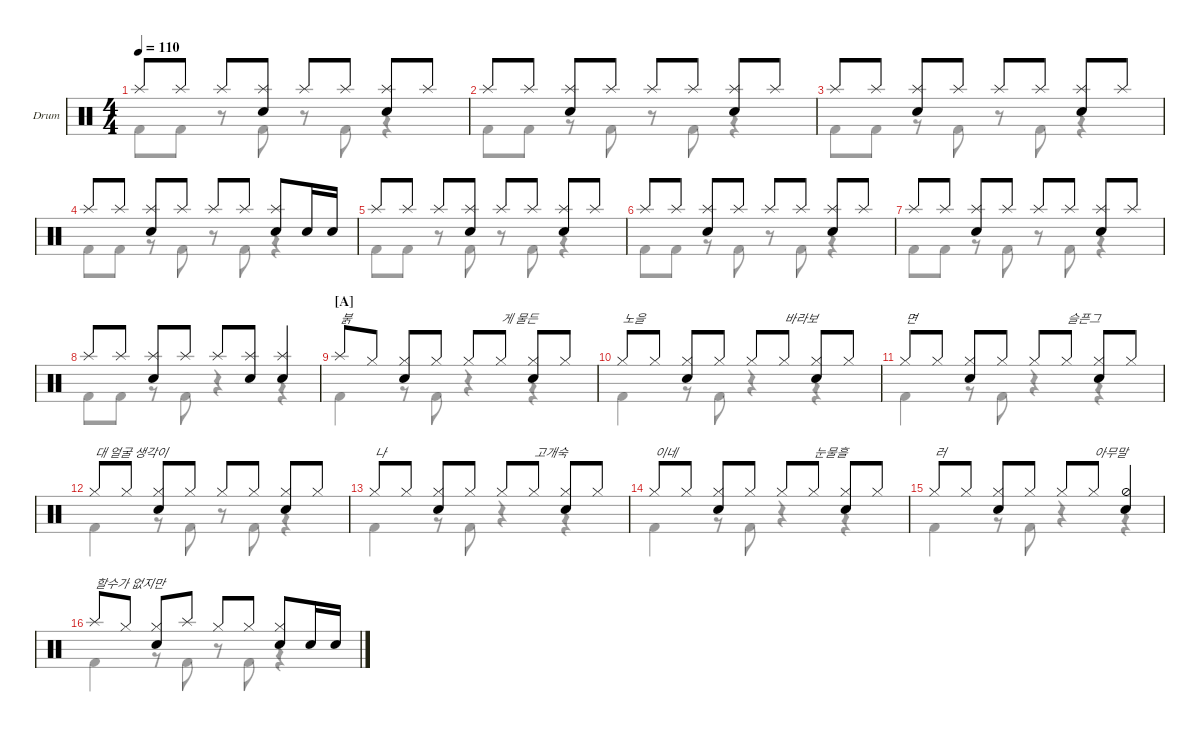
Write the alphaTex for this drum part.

\defaultSystemsLayout 4
\hideDynamics
\bracketExtendMode nobrackets
\firstSystemTrackNameOrientation horizontal
\track ("Drumkit" "Drum") {instrument percussion}
\staff {score}
\articulation defaults
\voice
\ts (4 4)
\tempo 110
\clef neutral
\ks c "Splash (hit)".8{dy mf beam Up} "Splash (hit)".8{beam Up} "Splash (hit)".8{beam Up}
("Splash (hit)" "Snare (hit) 2").8{beam Up} "Splash (hit)".8{beam Up} "Splash (hit)".8{beam Up} ("Splash (hit)" "Snare (hit) 2").8{beam Up} "Splash (hit)".8{beam Up} |
"Splash (hit)".8{beam Up} "Splash (hit)".8{beam Up} ("Splash (hit)" "Snare (hit) 2").8{beam Up} "Splash (hit)".8{beam Up} "Splash (hit)".8{beam Up} "Splash (hit)".8{beam Up} ("Splash (hit)" "Snare (hit) 2").8{beam Up} "Splash (hit)".8{beam Up} |
"Splash (hit)".8{beam Up} "Splash (hit)".8{beam Up} ("Splash (hit)" "Snare (hit) 2").8{beam Up} "Splash (hit)".8{beam Up} "Splash (hit)".8{beam Up} "Splash (hit)".8{beam Up} ("Splash (hit)" "Snare (hit) 2").8{beam Up} "Splash (hit)".8{beam Up} |
"Splash (hit)".8{beam Up} "Splash (hit)".8{beam Up} ("Splash (hit)" "Snare (hit) 2").8{beam Up} "Splash (hit)".8{beam Up} "Splash (hit)".8{beam Up} "Splash (hit)".8{beam Up} ("Splash (hit)" "Snare (hit) 2").8{beam Up} "Snare (hit) 2".16{beam Up} "Snare (hit) 2".16{beam Up} |
"Splash (hit)".8{beam Up} "Splash (hit)".8{beam Up} "Splash (hit)".8{beam Up} ("Splash (hit)" "Snare (hit) 2").8{beam Up} "Splash (hit)".8{beam Up} "Splash (hit)".8{beam Up} ("Splash (hit)" "Snare (hit) 2").8{beam Up} "Splash (hit)".8{beam Up} |
"Splash (hit)".8{beam Up} "Splash (hit)".8{beam Up} ("Splash (hit)" "Snare (hit) 2").8{beam Up} "Splash (hit)".8{beam Up} "Splash (hit)".8{beam Up} "Splash (hit)".8{beam Up} ("Splash (hit)" "Snare (hit) 2").8{beam Up} "Splash (hit)".8{beam Up} |
"Splash (hit)".8{beam Up} "Splash (hit)".8{beam Up} ("Splash (hit)" "Snare (hit) 2").8{beam Up} "Splash (hit)".8{beam Up} "Splash (hit)".8{beam Up} "Splash (hit)".8{beam Up} ("Splash (hit)" "Snare (hit) 2").8{beam Up} "Splash (hit)".8{beam Up} |
"Splash (hit)".8{beam Up} "Splash (hit)".8{beam Up} ("Splash (hit)" "Snare (hit) 2").8{beam Up} "Splash (hit)".8{beam Up} "Splash (hit)".8{beam Up} ("Splash (hit)" "Snare (hit) 2").8{beam Up} ("Splash (hit)" "Snare (hit) 2").4{beam Up} |
\section ("A" "")
"Splash (hit)".8{txt "붉" beam Up} "Hi-Hat (closed)".8{beam Up} ("Hi-Hat (closed)" "Snare (hit) 2").8{beam Up} "Hi-Hat (closed)".8{beam Up} "Hi-Hat (closed)".8{beam Up} "Hi-Hat (closed)".8{txt "게 물든" beam Up} ("Hi-Hat (closed)" "Snare (hit) 2").8{beam Up} "Hi-Hat (closed)".8{beam Up} |
"Hi-Hat (closed)".8{txt "노을" beam Up} "Hi-Hat (closed)".8{beam Up} ("Hi-Hat (closed)" "Snare (hit) 2").8{beam Up} "Hi-Hat (closed)".8{beam Up} "Hi-Hat (closed)".8{beam Up} "Hi-Hat (closed)".8{txt "바라보" beam Up} ("Hi-Hat (closed)" "Snare (hit) 2").8{beam Up} "Hi-Hat (closed)".8{beam Up} |
"Hi-Hat (closed)".8{txt "면" beam Up} "Hi-Hat (closed)".8{beam Up} ("Hi-Hat (closed)" "Snare (hit) 2").8{beam Up} "Hi-Hat (closed)".8{beam Up} "Hi-Hat (closed)".8{beam Up} "Hi-Hat (closed)".8{txt "슬픈그" beam Up} ("Hi-Hat (closed)" "Snare (hit) 2").8{beam Up} "Hi-Hat (closed)".8{beam Up} |
"Hi-Hat (closed)".8{txt "대 얼굴 생각이" beam Up} "Hi-Hat (closed)".8{beam Up} ("Hi-Hat (closed)" "Snare (hit) 2").8{beam Up} "Hi-Hat (closed)".8{beam Up} "Hi-Hat (closed)".8{beam Up} "Hi-Hat (closed)".8{beam Up} ("Hi-Hat (closed)" "Snare (hit) 2").8{beam Up} "Hi-Hat (closed)".8{beam Up} |
"Hi-Hat (closed)".8{txt "나" beam Up} "Hi-Hat (closed)".8{beam Up} ("Hi-Hat (closed)" "Snare (hit) 2").8{beam Up} "Hi-Hat (closed)".8{beam Up} "Hi-Hat (closed)".8{beam Up} "Hi-Hat (closed)".8{txt "고개숙" beam Up} ("Hi-Hat (closed)" "Snare (hit) 2").8{beam Up} "Hi-Hat (closed)".8{beam Up} |
"Hi-Hat (closed)".8{txt "이네" beam Up} "Hi-Hat (closed)".8{beam Up} ("Hi-Hat (closed)" "Snare (hit) 2").8{beam Up} "Hi-Hat (closed)".8{beam Up} "Hi-Hat (closed)".8{beam Up} "Hi-Hat (closed)".8{txt "눈물흘" beam Up} ("Hi-Hat (closed)" "Snare (hit) 2").8{beam Up} "Hi-Hat (closed)".8{beam Up} |
"Hi-Hat (closed)".8{txt "러" beam Up} "Hi-Hat (closed)".8{beam Up} ("Hi-Hat (closed)" "Snare (hit) 2").8{beam Up} "Hi-Hat (closed)".8{beam Up} "Hi-Hat (closed)".8{beam Up} "Hi-Hat (closed)".8{txt "아무말" beam Up} ("Hi-Hat (half)" "Snare (hit) 2").4{beam Up} |
"Splash (hit)".8{txt "할수가 없지만" beam Up} "Hi-Hat (closed)".8{beam Up} ("Hi-Hat (closed)" "Snare (hit) 2").8{beam Up} "Splash (hit)".8{beam Up} "Hi-Hat (closed)".8{beam Up} "Hi-Hat (closed)".8{beam Up} ("Hi-Hat (closed)" "Snare (hit) 2").8{beam Up} "Snare (hit) 2".16{beam Up} "Snare (hit) 2".16{beam Up}
\voice
\clef neutral
\ottava regular
\simile none
\ks c
|
|
|
|
|
|
|
|
|
|
|
|
|
|
|
\voice
\clef neutral
\ottava regular
\simile none
\ks c "Kick (hit) 2".8{dy mf beam Down} "Kick (hit) 2".8{beam Down}
r.8{beam Down} "Kick (hit) 2".8{beam Down} r.8{beam Down} "Kick (hit) 2".8{beam Down} r.4{beam Down} |
"Kick (hit) 2".8{beam Down} "Kick (hit) 2".8{beam Down} r.8{beam Down} "Kick (hit) 2".8{beam Down} r.8{beam Down} "Kick (hit) 2".8{beam Down} r.4{beam Down} |
"Kick (hit) 2".8{beam Down} "Kick (hit) 2".8{beam Down} r.8{beam Down} "Kick (hit) 2".8{beam Down} r.8{beam Down} "Kick (hit) 2".8{beam Down} r.4{beam Down} |
"Kick (hit) 2".8{beam Down} "Kick (hit) 2".8{beam Down} r.8{beam Down} "Kick (hit) 2".8{beam Down} r.8{beam Down} "Kick (hit) 2".8{beam Down} r.4{beam Down} |
"Kick (hit) 2".8{beam Down} "Kick (hit) 2".8{beam Down} r.8{beam Down} "Kick (hit) 2".8{beam Down} r.8{beam Down} "Kick (hit) 2".8{beam Down} r.4{beam Down} |
"Kick (hit) 2".8{beam Down} "Kick (hit) 2".8{beam Down} r.8{beam Down} "Kick (hit) 2".8{beam Down} r.8{beam Down} "Kick (hit) 2".8{beam Down} r.4{beam Down} |
"Kick (hit) 2".8{beam Down} "Kick (hit) 2".8{beam Down} r.8{beam Down} "Kick (hit) 2".8{beam Down} r.8{beam Down} "Kick (hit) 2".8{beam Down} r.4{beam Down} |
"Kick (hit) 2".8{beam Down} "Kick (hit) 2".8{beam Down} r.8{beam Down} "Kick (hit) 2".8{beam Down} r.4{beam Down} r.4{beam Down} |
"Kick (hit) 2".4{beam Down} r.8{beam Down} "Kick (hit) 2".8{beam Down} r.4{beam Down} r.4{beam Down} |
"Kick (hit) 2".4{beam Down} r.8{beam Down} "Kick (hit) 2".8{beam Down} r.4{beam Down} r.4{beam Down} |
"Kick (hit) 2".4{beam Down} r.8{beam Down} "Kick (hit) 2".8{beam Down} r.4{beam Down} r.4{beam Down} |
"Kick (hit) 2".4{beam Down} r.8{beam Down} "Kick (hit) 2".8{beam Down} r.8{beam Down} "Kick (hit) 2".8{beam Down} r.4{beam Down} |
"Kick (hit) 2".4{beam Down} r.8{beam Down} "Kick (hit) 2".8{beam Down} r.4{beam Down} r.4{beam Down} |
"Kick (hit) 2".4{beam Down} r.8{beam Down} "Kick (hit) 2".8{beam Down} r.4{beam Down} r.4{beam Down} |
"Kick (hit) 2".4{beam Down} r.8{beam Down} "Kick (hit) 2".8{beam Down} r.4{beam Down} r.4{beam Down} |
"Kick (hit) 2".4{beam Down} r.8{beam Down} "Kick (hit) 2".8{beam Down} r.8{beam Down} "Kick (hit) 2".8{beam Down} r.4{beam Down}
